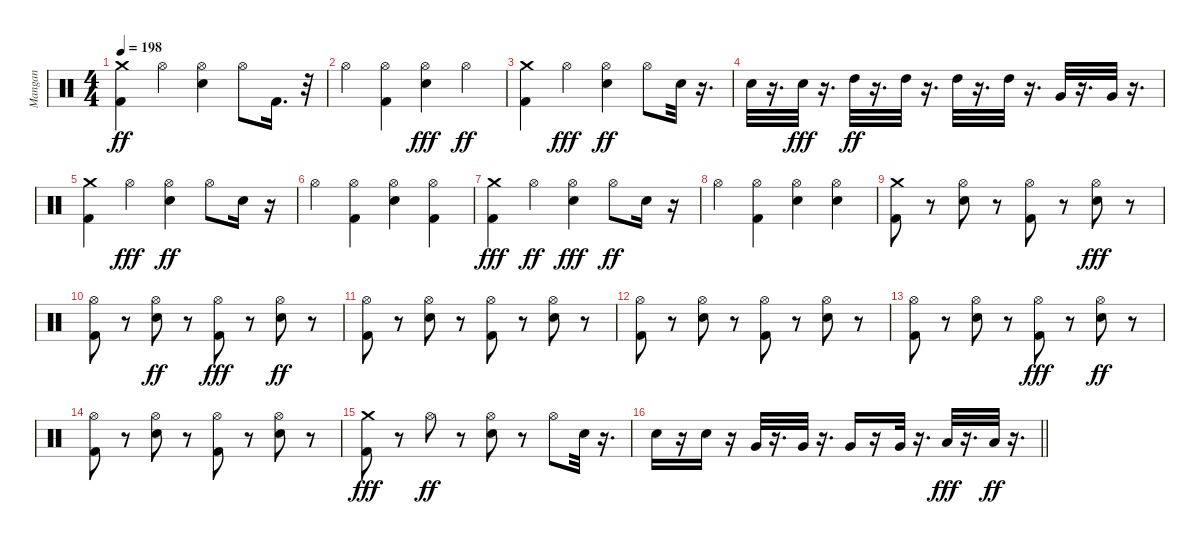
\track ("Mangan" "Mangan") {instrument percussion}
\staff {score}
\articulation defaults
\ts (4 4)
\tempo 198
\clef neutral
\ks c
("Kick (hit) 2" "Crash medium (hit)").4{dy ff} "Hi-Hat (open)".4 ("Snare (hit) 2" "Hi-Hat (open)").4 "Hi-Hat (open)".8 "Kick (hit) 2".16{d} r.32 |
"Hi-Hat (open)".4 ("Kick (hit) 2" "Hi-Hat (open)").4 ("Snare (hit) 2" "Hi-Hat (open)").4{dy fff} "Hi-Hat (open)".4{dy ff} |
("Kick (hit) 2" "Crash medium (hit)").4 "Hi-Hat (open)".4{dy fff} ("Snare (hit) 2" "Hi-Hat (open)").4{dy ff} "Hi-Hat (open)".8 "Snare (hit) 2".32 r.16{d} |
"Snare (hit) 2".32 r.16{d} "Snare (hit) 2".32{dy fff} r.16{d} "High Tom (hit)".32{dy ff} r.16{d} "High Tom (hit)".32 r.16{d} "High Tom (hit)".32 r.16{d} "High Tom (hit)".32 r.16{d} "Very Low Tom (hit)".32 r.16{d} "Very Low Tom (hit)".32 r.16{d} |
("Kick (hit) 2" "Crash medium (hit)").4 "Hi-Hat (open)".4{dy fff} ("Snare (hit) 2" "Hi-Hat (open)").4{dy ff} "Hi-Hat (open)".8 "Snare (hit) 2".16 r.16 |
"Hi-Hat (open)".4 ("Kick (hit) 2" "Hi-Hat (open)").4 ("Snare (hit) 2" "Hi-Hat (open)").4 ("Kick (hit) 2" "Hi-Hat (open)").4 |
("Kick (hit) 2" "Crash medium (hit)").4{dy fff} "Hi-Hat (open)".4{dy ff} ("Snare (hit) 2" "Hi-Hat (open)").4{dy fff} "Hi-Hat (open)".8{dy ff} "Snare (hit) 2".16 r.16 |
"Hi-Hat (open)".4 ("Kick (hit) 2" "Hi-Hat (open)").4 ("Snare (hit) 2" "Hi-Hat (open)").4 ("Snare (hit) 2" "Hi-Hat (open)").4 |
("Kick (hit) 2" "Crash medium (hit)").8 r.8 ("Snare (hit) 2" "Hi-Hat (open)").8 r.8 ("Kick (hit) 2" "Hi-Hat (open)").8 r.8 ("Snare (hit) 2" "Hi-Hat (open)").8{dy fff} r.8 |
("Kick (hit) 2" "Hi-Hat (open)").8 r.8 ("Snare (hit) 2" "Hi-Hat (open)").8{dy ff} r.8 ("Kick (hit) 2" "Hi-Hat (open)").8{dy fff} r.8 ("Snare (hit) 2" "Hi-Hat (open)").8{dy ff} r.8 |
("Kick (hit) 2" "Hi-Hat (open)").8 r.8 ("Snare (hit) 2" "Hi-Hat (open)").8 r.8 ("Kick (hit) 2" "Hi-Hat (open)").8 r.8 ("Snare (hit) 2" "Hi-Hat (open)").8 r.8 |
("Kick (hit) 2" "Hi-Hat (open)").8 r.8 ("Snare (hit) 2" "Hi-Hat (open)").8 r.8 ("Kick (hit) 2" "Hi-Hat (open)").8 r.8 ("Snare (hit) 2" "Hi-Hat (open)").8 r.8 |
("Kick (hit) 2" "Hi-Hat (open)").8 r.8 ("Snare (hit) 2" "Hi-Hat (open)").8 r.8 ("Kick (hit) 2" "Hi-Hat (open)").8{dy fff} r.8 ("Snare (hit) 2" "Hi-Hat (open)").8{dy ff} r.8 |
("Kick (hit) 2" "Hi-Hat (open)").8 r.8 ("Snare (hit) 2" "Hi-Hat (open)").8 r.8 ("Kick (hit) 2" "Hi-Hat (open)").8 r.8 ("Snare (hit) 2" "Hi-Hat (open)").8 r.8 |
("Kick (hit) 2" "Crash medium (hit)").8{dy fff} r.8 "Hi-Hat (open)".8{dy ff} r.8 ("Snare (hit) 2" "Hi-Hat (open)").8 r.8 "Hi-Hat (open)".8 "Snare (hit) 2".32 r.16{d} |
\barLineRight lightlight "Snare (hit) 2".16
r.16 "Snare (hit) 2".16 r.16 "Very Low Tom (hit)".32 r.16{d} "Very Low Tom (hit)".32 r.16{d} "Very Low Tom (hit)".16 r.16 "Very Low Tom (hit)".32 r.16{d} "Low Floor Tom (hit)".32{dy fff} r.16{d} "Low Floor Tom (hit)".32{dy ff} r.16{d}
